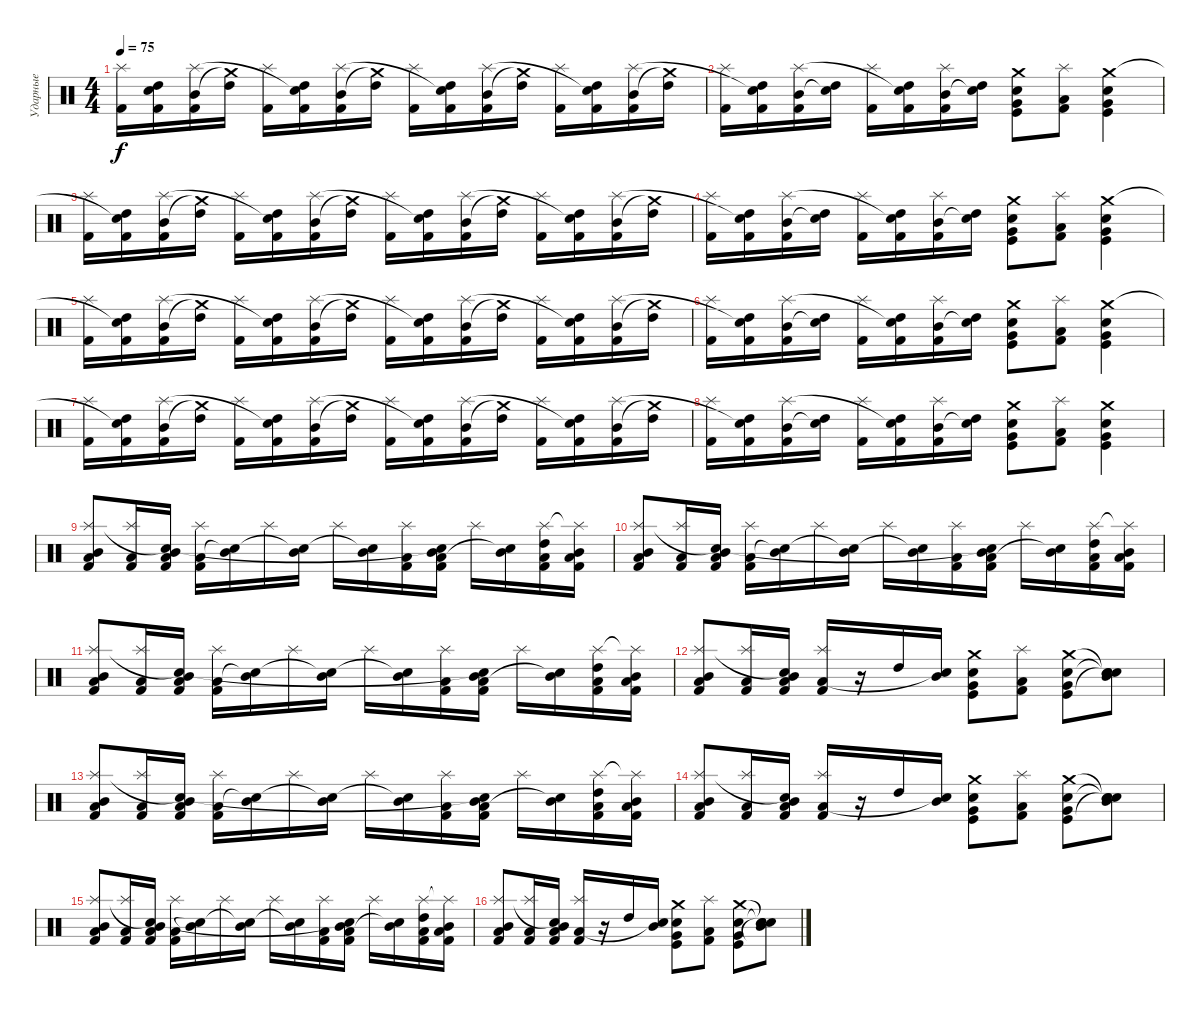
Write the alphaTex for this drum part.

\track ("Ударные" "Ударные") {instrument percussion}
\staff {score}
\articulation defaults
\ts (4 4)
\tempo 75
\clef neutral
\ks c
("Kick (hit) 2" "Splash (hit)").16{dy f} ("Kick (hit) 2" "High Tom (hit)" "Snare (hit)"{t}).16 ("Kick (hit) 2" "Mid Tom (hit)" "Splash (hit)").16 ("High Tom (hit)" "Crash medium (hit)"{t}).16 ("Kick (hit) 2" "Splash (hit)").16 ("Kick (hit) 2" "High Tom (hit)" "Snare (hit)"{t}).16 ("Kick (hit) 2" "Mid Tom (hit)" "Splash (hit)").16 ("High Tom (hit)" "Crash medium (hit)"{t}).16 ("Kick (hit) 2" "Splash (hit)").16 ("Kick (hit) 2" "High Tom (hit)" "Snare (hit)"{t}).16 ("Kick (hit) 2" "Mid Tom (hit)" "Splash (hit)").16 ("High Tom (hit)" "Crash medium (hit)"{t}).16 ("Kick (hit) 2" "Splash (hit)").16 ("Kick (hit) 2" "High Tom (hit)" "Snare (hit)"{t}).16 ("Kick (hit) 2" "Mid Tom (hit)" "Splash (hit)").16 ("High Tom (hit)" "Crash medium (hit)"{t}).16 |
("Kick (hit) 2" "Splash (hit)").16 ("Kick (hit) 2" "High Tom (hit)" "Snare (hit)"{t}).16 ("Kick (hit) 2" "Mid Tom (hit)" "Splash (hit)").16 ("High Tom (hit)" "Snare (hit)"{t}).16 ("Kick (hit) 2" "Splash (hit)").16 ("Kick (hit) 2" "High Tom (hit)" "Snare (hit)"{t}).16 ("Kick (hit) 2" "Mid Tom (hit)" "Splash (hit)").16 ("High Tom (hit)" "Snare (hit)"{t}).16 ("Kick (hit)" "Very Low Tom (hit)" "Crash medium (hit)" "Electric Snare (hit)").8 ("Kick (hit) 2" "Low Floor Tom (hit)" "Splash (hit)").8 ("Kick (hit)" "Very Low Tom (hit)" "Crash medium (hit)" "Electric Snare (hit)").4 |
("Kick (hit) 2" "Splash (hit)").16 ("Kick (hit) 2" "High Tom (hit)" "Snare (hit)"{t}).16 ("Kick (hit) 2" "Mid Tom (hit)" "Splash (hit)").16 ("High Tom (hit)" "Crash medium (hit)"{t}).16 ("Kick (hit) 2" "Splash (hit)").16 ("Kick (hit) 2" "High Tom (hit)" "Snare (hit)"{t}).16 ("Kick (hit) 2" "Mid Tom (hit)" "Splash (hit)").16 ("High Tom (hit)" "Crash medium (hit)"{t}).16 ("Kick (hit) 2" "Splash (hit)").16 ("Kick (hit) 2" "High Tom (hit)" "Snare (hit)"{t}).16 ("Kick (hit) 2" "Mid Tom (hit)" "Splash (hit)").16 ("High Tom (hit)" "Crash medium (hit)"{t}).16 ("Kick (hit) 2" "Splash (hit)").16 ("Kick (hit) 2" "High Tom (hit)" "Snare (hit)"{t}).16 ("Kick (hit) 2" "Mid Tom (hit)" "Splash (hit)").16 ("High Tom (hit)" "Crash medium (hit)"{t}).16 |
("Kick (hit) 2" "Splash (hit)").16 ("Kick (hit) 2" "High Tom (hit)" "Snare (hit)"{t}).16 ("Kick (hit) 2" "Mid Tom (hit)" "Splash (hit)").16 ("High Tom (hit)" "Snare (hit)"{t}).16 ("Kick (hit) 2" "Splash (hit)").16 ("Kick (hit) 2" "High Tom (hit)" "Snare (hit)"{t}).16 ("Kick (hit) 2" "Mid Tom (hit)" "Splash (hit)").16 ("High Tom (hit)" "Snare (hit)"{t}).16 ("Kick (hit)" "Very Low Tom (hit)" "Crash medium (hit)" "Electric Snare (hit)").8 ("Kick (hit) 2" "Low Floor Tom (hit)" "Splash (hit)").8 ("Kick (hit)" "Very Low Tom (hit)" "Crash medium (hit)" "Electric Snare (hit)").4 |
("Kick (hit) 2" "Splash (hit)").16 ("Kick (hit) 2" "High Tom (hit)" "Snare (hit)"{t}).16 ("Kick (hit) 2" "Mid Tom (hit)" "Splash (hit)").16 ("High Tom (hit)" "Crash medium (hit)"{t}).16 ("Kick (hit) 2" "Splash (hit)").16 ("Kick (hit) 2" "High Tom (hit)" "Snare (hit)"{t}).16 ("Kick (hit) 2" "Mid Tom (hit)" "Splash (hit)").16 ("High Tom (hit)" "Crash medium (hit)"{t}).16 ("Kick (hit) 2" "Splash (hit)").16 ("Kick (hit) 2" "High Tom (hit)" "Snare (hit)"{t}).16 ("Kick (hit) 2" "Mid Tom (hit)" "Splash (hit)").16 ("High Tom (hit)" "Crash medium (hit)"{t}).16 ("Kick (hit) 2" "Splash (hit)").16 ("Kick (hit) 2" "High Tom (hit)" "Snare (hit)"{t}).16 ("Kick (hit) 2" "Mid Tom (hit)" "Splash (hit)").16 ("High Tom (hit)" "Crash medium (hit)"{t}).16 |
("Kick (hit) 2" "Splash (hit)").16 ("Kick (hit) 2" "High Tom (hit)" "Snare (hit)"{t}).16 ("Kick (hit) 2" "Mid Tom (hit)" "Splash (hit)").16 ("High Tom (hit)" "Snare (hit)"{t}).16 ("Kick (hit) 2" "Splash (hit)").16 ("Kick (hit) 2" "High Tom (hit)" "Snare (hit)"{t}).16 ("Kick (hit) 2" "Mid Tom (hit)" "Splash (hit)").16 ("High Tom (hit)" "Snare (hit)"{t}).16 ("Kick (hit)" "Very Low Tom (hit)" "Crash medium (hit)" "Electric Snare (hit)").8 ("Kick (hit) 2" "Low Floor Tom (hit)" "Splash (hit)").8 ("Kick (hit)" "Very Low Tom (hit)" "Crash medium (hit)" "Electric Snare (hit)").4 |
("Kick (hit) 2" "Splash (hit)").16 ("Kick (hit) 2" "High Tom (hit)" "Snare (hit)"{t}).16 ("Kick (hit) 2" "Mid Tom (hit)" "Splash (hit)").16 ("High Tom (hit)" "Crash medium (hit)"{t}).16 ("Kick (hit) 2" "Splash (hit)").16 ("Kick (hit) 2" "High Tom (hit)" "Snare (hit)"{t}).16 ("Kick (hit) 2" "Mid Tom (hit)" "Splash (hit)").16 ("High Tom (hit)" "Crash medium (hit)"{t}).16 ("Kick (hit) 2" "Splash (hit)").16 ("Kick (hit) 2" "High Tom (hit)" "Snare (hit)"{t}).16 ("Kick (hit) 2" "Mid Tom (hit)" "Splash (hit)").16 ("High Tom (hit)" "Crash medium (hit)"{t}).16 ("Kick (hit) 2" "Splash (hit)").16 ("Kick (hit) 2" "High Tom (hit)" "Snare (hit)"{t}).16 ("Kick (hit) 2" "Mid Tom (hit)" "Splash (hit)").16 ("High Tom (hit)" "Crash medium (hit)"{t}).16 |
("Kick (hit) 2" "Splash (hit)").16 ("Kick (hit) 2" "High Tom (hit)" "Snare (hit)"{t}).16 ("Kick (hit) 2" "Mid Tom (hit)" "Splash (hit)").16 ("High Tom (hit)" "Snare (hit)"{t}).16 ("Kick (hit) 2" "Splash (hit)").16 ("Kick (hit) 2" "High Tom (hit)" "Snare (hit)"{t}).16 ("Kick (hit) 2" "Mid Tom (hit)" "Splash (hit)").16 ("High Tom (hit)" "Snare (hit)"{t}).16 ("Kick (hit)" "Very Low Tom (hit)" "Crash medium (hit)" "Electric Snare (hit)").8 ("Kick (hit) 2" "Low Floor Tom (hit)" "Splash (hit)").8 ("Kick (hit)" "Very Low Tom (hit)" "Crash medium (hit)" "Electric Snare (hit)").4 |
("Kick (hit) 2" "Low Tom (hit)" "Mid Tom (hit)" "Splash (hit)").8 ("Kick (hit) 2" "Low Tom (hit)" "Splash (hit)").16 ("Kick (hit) 2" "Low Tom (hit)" "Mid Tom (hit)" "Snare (hit)"{t}).16 ("Kick (hit) 2" "Low Tom (hit)" "Splash (hit)").16 ("Mid Tom (hit)" "Snare (hit)"{t}).16 "Splash (hit)".16 ("Mid Tom (hit)" "Snare (hit)"{t}).16 "Splash (hit)".16 ("Mid Tom (hit)" "Snare (hit)"{t}).16 ("Kick (hit) 2" "Low Tom (hit)" "Splash (hit)").16 ("Kick (hit) 2" "Low Tom (hit)" "Mid Tom (hit)" "Snare (hit)"{t}).16 "Splash (hit)".16 ("Mid Tom (hit)" "Snare (hit)"{t}).16 ("Kick (hit) 2" "Low Tom (hit)" "High Tom (hit)" "Splash (hit)").16 ("Kick (hit) 2" "Low Tom (hit)" "Mid Tom (hit)" "Splash (hit)"{t}).16 |
("Kick (hit) 2" "Low Tom (hit)" "Mid Tom (hit)" "Splash (hit)").8 ("Kick (hit) 2" "Low Tom (hit)" "Splash (hit)").16 ("Kick (hit) 2" "Low Tom (hit)" "Mid Tom (hit)" "Snare (hit)"{t}).16 ("Kick (hit) 2" "Low Tom (hit)" "Splash (hit)").16 ("Mid Tom (hit)" "Snare (hit)"{t}).16 "Splash (hit)".16 ("Mid Tom (hit)" "Snare (hit)"{t}).16 "Splash (hit)".16 ("Mid Tom (hit)" "Snare (hit)"{t}).16 ("Kick (hit) 2" "Low Tom (hit)" "Splash (hit)").16 ("Kick (hit) 2" "Low Tom (hit)" "Mid Tom (hit)" "Snare (hit)"{t}).16 "Splash (hit)".16 ("Mid Tom (hit)" "Snare (hit)"{t}).16 ("Kick (hit) 2" "Low Tom (hit)" "High Tom (hit)" "Splash (hit)").16 ("Kick (hit) 2" "Low Tom (hit)" "Mid Tom (hit)" "Splash (hit)"{t}).16 |
("Kick (hit) 2" "Low Tom (hit)" "Mid Tom (hit)" "Splash (hit)").8 ("Kick (hit) 2" "Low Tom (hit)" "Splash (hit)").16 ("Kick (hit) 2" "Low Tom (hit)" "Mid Tom (hit)" "Snare (hit)"{t}).16 ("Kick (hit) 2" "Low Tom (hit)" "Splash (hit)").16 ("Mid Tom (hit)" "Snare (hit)"{t}).16 "Splash (hit)".16 ("Mid Tom (hit)" "Snare (hit)"{t}).16 "Splash (hit)".16 ("Mid Tom (hit)" "Snare (hit)"{t}).16 ("Kick (hit) 2" "Low Tom (hit)" "Splash (hit)").16 ("Kick (hit) 2" "Low Tom (hit)" "Mid Tom (hit)" "Snare (hit)"{t}).16 "Splash (hit)".16 ("Mid Tom (hit)" "Snare (hit)"{t}).16 ("Kick (hit) 2" "Low Tom (hit)" "High Tom (hit)" "Splash (hit)").16 ("Kick (hit) 2" "Low Tom (hit)" "Mid Tom (hit)" "Splash (hit)"{t}).16 |
("Kick (hit) 2" "Low Tom (hit)" "Mid Tom (hit)" "Splash (hit)").8 ("Kick (hit) 2" "Low Tom (hit)" "Splash (hit)").16 ("Kick (hit) 2" "Low Tom (hit)" "Mid Tom (hit)" "Snare (hit)"{t}).16 ("Kick (hit) 2" "Low Tom (hit)" "Splash (hit)").16 r.16 "High Tom (hit)".16 ("Mid Tom (hit)" "Snare (hit)"{t}).16 ("Kick (hit)" "Very Low Tom (hit)" "Crash medium (hit)" "Electric Snare (hit)").8 ("Kick (hit) 2" "Low Floor Tom (hit)" "Splash (hit)").8 ("Kick (hit)" "Very Low Tom (hit)" "Crash medium (hit)" "Electric Snare (hit)").8 ("Snare (hit)"{t} "Mid Tom (hit)" "Snare (hit)"{t} "Snare (hit)"{t}).8 |
("Kick (hit) 2" "Low Tom (hit)" "Mid Tom (hit)" "Splash (hit)").8 ("Kick (hit) 2" "Low Tom (hit)" "Splash (hit)").16 ("Kick (hit) 2" "Low Tom (hit)" "Mid Tom (hit)" "Snare (hit)"{t}).16 ("Kick (hit) 2" "Low Tom (hit)" "Splash (hit)").16 ("Mid Tom (hit)" "Snare (hit)"{t}).16 "Splash (hit)".16 ("Mid Tom (hit)" "Snare (hit)"{t}).16 "Splash (hit)".16 ("Mid Tom (hit)" "Snare (hit)"{t}).16 ("Kick (hit) 2" "Low Tom (hit)" "Splash (hit)").16 ("Kick (hit) 2" "Low Tom (hit)" "Mid Tom (hit)" "Snare (hit)"{t}).16 "Splash (hit)".16 ("Mid Tom (hit)" "Snare (hit)"{t}).16 ("Kick (hit) 2" "Low Tom (hit)" "High Tom (hit)" "Splash (hit)").16 ("Kick (hit) 2" "Low Tom (hit)" "Mid Tom (hit)" "Splash (hit)"{t}).16 |
("Kick (hit) 2" "Low Tom (hit)" "Mid Tom (hit)" "Splash (hit)").8 ("Kick (hit) 2" "Low Tom (hit)" "Splash (hit)").16 ("Kick (hit) 2" "Low Tom (hit)" "Mid Tom (hit)" "Snare (hit)"{t}).16 ("Kick (hit) 2" "Low Tom (hit)" "Splash (hit)").16 r.16 "High Tom (hit)".16 ("Mid Tom (hit)" "Snare (hit)"{t}).16 ("Kick (hit)" "Very Low Tom (hit)" "Crash medium (hit)" "Electric Snare (hit)").8 ("Kick (hit) 2" "Low Floor Tom (hit)" "Splash (hit)").8 ("Kick (hit)" "Very Low Tom (hit)" "Crash medium (hit)" "Electric Snare (hit)").8 ("Snare (hit)"{t} "Mid Tom (hit)" "Snare (hit)"{t} "Snare (hit)"{t}).8 |
("Kick (hit) 2" "Low Tom (hit)" "Mid Tom (hit)" "Splash (hit)").8 ("Kick (hit) 2" "Low Tom (hit)" "Splash (hit)").16 ("Kick (hit) 2" "Low Tom (hit)" "Mid Tom (hit)" "Snare (hit)"{t}).16 ("Kick (hit) 2" "Low Tom (hit)" "Splash (hit)").16 ("Mid Tom (hit)" "Snare (hit)"{t}).16 "Splash (hit)".16 ("Mid Tom (hit)" "Snare (hit)"{t}).16 "Splash (hit)".16 ("Mid Tom (hit)" "Snare (hit)"{t}).16 ("Kick (hit) 2" "Low Tom (hit)" "Splash (hit)").16 ("Kick (hit) 2" "Low Tom (hit)" "Mid Tom (hit)" "Snare (hit)"{t}).16 "Splash (hit)".16 ("Mid Tom (hit)" "Snare (hit)"{t}).16 ("Kick (hit) 2" "Low Tom (hit)" "High Tom (hit)" "Splash (hit)").16 ("Kick (hit) 2" "Low Tom (hit)" "Mid Tom (hit)" "Splash (hit)"{t}).16 |
("Kick (hit) 2" "Low Tom (hit)" "Mid Tom (hit)" "Splash (hit)").8 ("Kick (hit) 2" "Low Tom (hit)" "Splash (hit)").16 ("Kick (hit) 2" "Low Tom (hit)" "Mid Tom (hit)" "Snare (hit)"{t}).16 ("Kick (hit) 2" "Low Tom (hit)" "Splash (hit)").16 r.16 "High Tom (hit)".16 ("Mid Tom (hit)" "Snare (hit)"{t}).16 ("Kick (hit)" "Very Low Tom (hit)" "Crash medium (hit)" "Electric Snare (hit)").8 ("Kick (hit) 2" "Low Floor Tom (hit)" "Splash (hit)").8 ("Kick (hit)" "Very Low Tom (hit)" "Crash medium (hit)" "Electric Snare (hit)").8 ("Snare (hit)"{t} "Mid Tom (hit)" "Snare (hit)"{t} "Snare (hit)"{t}).8
